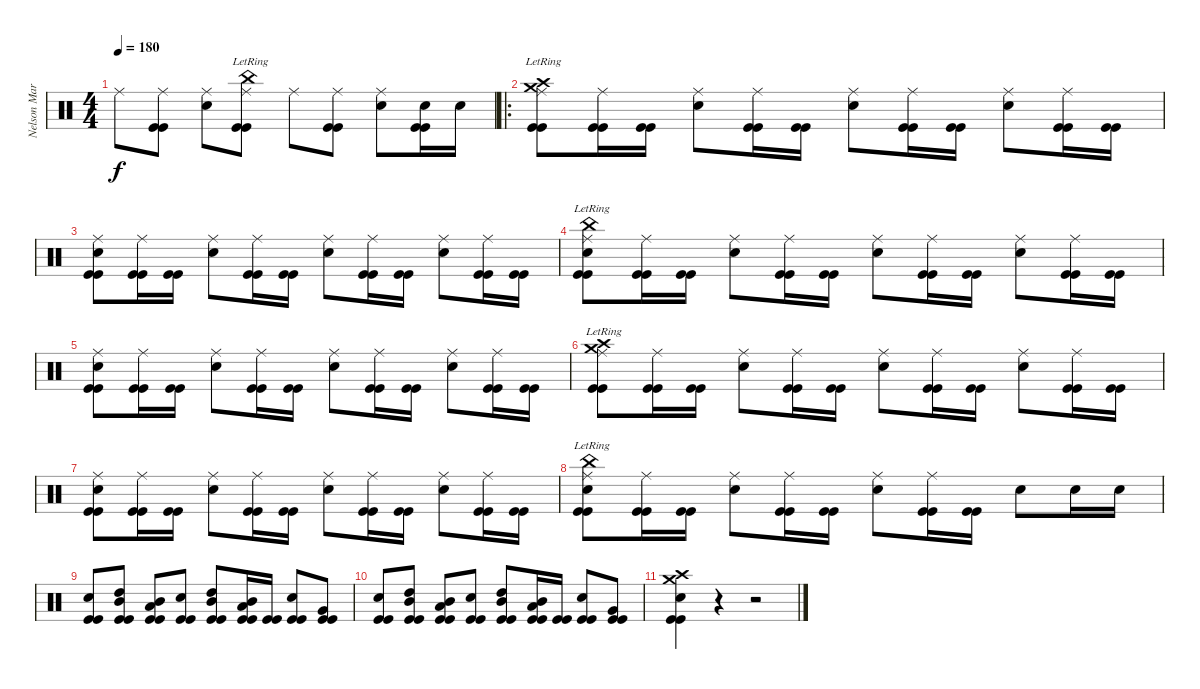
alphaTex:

\track ("Nelson Maria" "Nelson Mar") {instrument percussion}
\staff {score}
\articulation defaults
\ts (4 4)
\tempo 180
\clef neutral
\ks c "Ride (middle)".8{dy f}
("Ride (middle)" "Kick (hit)" "Kick (hit)").8 ("Snare (hit) 2" "Ride (middle)").8 ("China (hit)"{lr} "Ride (middle)" "Kick (hit)" "Kick (hit)").8 "Ride (middle)".8 ("Ride (middle)" "Kick (hit)" "Kick (hit)").8 ("Snare (hit) 2" "Ride (middle)").8 ("Snare (hit) 2" "Kick (hit)" "Kick (hit)").16 "Snare (hit) 2".16 |
\ro
("Crash high (hit)"{lr} "Crash medium (hit)"{lr} "Ride (middle)" "Kick (hit)" "Kick (hit)").8 ("Ride (middle)" "Kick (hit)" "Kick (hit)").16 ("Kick (hit)" "Kick (hit)").16 ("Snare (hit) 2" "Ride (middle)").8 ("Ride (middle)" "Kick (hit)" "Kick (hit)").16 ("Kick (hit)" "Kick (hit)").16 ("Snare (hit) 2" "Ride (middle)").8 ("Ride (middle)" "Kick (hit)" "Kick (hit)").16 ("Kick (hit)" "Kick (hit)").16 ("Snare (hit) 2" "Ride (middle)").8 ("Ride (middle)" "Kick (hit)" "Kick (hit)").16 ("Kick (hit)" "Kick (hit)").16 |
("Snare (hit) 2" "Ride (middle)" "Kick (hit)" "Kick (hit)").8 ("Ride (middle)" "Kick (hit)" "Kick (hit)").16 ("Kick (hit)" "Kick (hit)").16 ("Snare (hit) 2" "Ride (middle)").8 ("Ride (middle)" "Kick (hit)" "Kick (hit)").16 ("Kick (hit)" "Kick (hit)").16 ("Snare (hit) 2" "Ride (middle)").8 ("Ride (middle)" "Kick (hit)" "Kick (hit)").16 ("Kick (hit)" "Kick (hit)").16 ("Snare (hit) 2" "Ride (middle)").8 ("Ride (middle)" "Kick (hit)" "Kick (hit)").16 ("Kick (hit)" "Kick (hit)").16 |
("China (hit)"{lr} "Snare (hit) 2" "Ride (middle)" "Kick (hit)" "Kick (hit)").8 ("Ride (middle)" "Kick (hit)" "Kick (hit)").16 ("Kick (hit)" "Kick (hit)").16 ("Snare (hit) 2" "Ride (middle)").8 ("Ride (middle)" "Kick (hit)" "Kick (hit)").16 ("Kick (hit)" "Kick (hit)").16 ("Snare (hit) 2" "Ride (middle)").8 ("Ride (middle)" "Kick (hit)" "Kick (hit)").16 ("Kick (hit)" "Kick (hit)").16 ("Snare (hit) 2" "Ride (middle)").8 ("Ride (middle)" "Kick (hit)" "Kick (hit)").16 ("Kick (hit)" "Kick (hit)").16 |
("Snare (hit) 2" "Ride (middle)" "Kick (hit)" "Kick (hit)").8 ("Ride (middle)" "Kick (hit)" "Kick (hit)").16 ("Kick (hit)" "Kick (hit)").16 ("Snare (hit) 2" "Ride (middle)").8 ("Ride (middle)" "Kick (hit)" "Kick (hit)").16 ("Kick (hit)" "Kick (hit)").16 ("Snare (hit) 2" "Ride (middle)").8 ("Ride (middle)" "Kick (hit)" "Kick (hit)").16 ("Kick (hit)" "Kick (hit)").16 ("Snare (hit) 2" "Ride (middle)").8 ("Ride (middle)" "Kick (hit)" "Kick (hit)").16 ("Kick (hit)" "Kick (hit)").16 |
("Crash high (hit)"{lr} "Crash medium (hit)"{lr} "Ride (middle)" "Kick (hit)" "Kick (hit)").8 ("Ride (middle)" "Kick (hit)" "Kick (hit)").16 ("Kick (hit)" "Kick (hit)").16 ("Snare (hit) 2" "Ride (middle)").8 ("Ride (middle)" "Kick (hit)" "Kick (hit)").16 ("Kick (hit)" "Kick (hit)").16 ("Snare (hit) 2" "Ride (middle)").8 ("Ride (middle)" "Kick (hit)" "Kick (hit)").16 ("Kick (hit)" "Kick (hit)").16 ("Snare (hit) 2" "Ride (middle)").8 ("Ride (middle)" "Kick (hit)" "Kick (hit)").16 ("Kick (hit)" "Kick (hit)").16 |
("Snare (hit) 2" "Ride (middle)" "Kick (hit)" "Kick (hit)").8 ("Ride (middle)" "Kick (hit)" "Kick (hit)").16 ("Kick (hit)" "Kick (hit)").16 ("Snare (hit) 2" "Ride (middle)").8 ("Ride (middle)" "Kick (hit)" "Kick (hit)").16 ("Kick (hit)" "Kick (hit)").16 ("Snare (hit) 2" "Ride (middle)").8 ("Ride (middle)" "Kick (hit)" "Kick (hit)").16 ("Kick (hit)" "Kick (hit)").16 ("Snare (hit) 2" "Ride (middle)").8 ("Ride (middle)" "Kick (hit)" "Kick (hit)").16 ("Kick (hit)" "Kick (hit)").16 |
("China (hit)"{lr} "Snare (hit) 2" "Ride (middle)" "Kick (hit)" "Kick (hit)").8 ("Ride (middle)" "Kick (hit)" "Kick (hit)").16 ("Kick (hit)" "Kick (hit)").16 ("Snare (hit) 2" "Ride (middle)").8 ("Ride (middle)" "Kick (hit)" "Kick (hit)").16 ("Kick (hit)" "Kick (hit)").16 ("Snare (hit) 2" "Ride (middle)").8 ("Ride (middle)" "Kick (hit)" "Kick (hit)").16 ("Kick (hit)" "Kick (hit)").16 "Snare (hit) 2".8 "Snare (hit) 2".16 "Snare (hit) 2".16 |
("Snare (hit) 2" "Kick (hit)" "Kick (hit)").8 ("Mid Tom (hit)" "High Tom (hit)" "Kick (hit)" "Kick (hit)").8 ("Low Tom (hit)" "Mid Tom (hit)" "Kick (hit)" "Kick (hit)").8 ("Snare (hit) 2" "Kick (hit)" "Kick (hit)").8 ("Mid Tom (hit)" "High Tom (hit)" "Kick (hit)" "Kick (hit)").8 ("Low Tom (hit)" "Mid Tom (hit)" "Kick (hit)" "Kick (hit)").16 ("Kick (hit)" "Kick (hit)").16 ("Snare (hit) 2" "Kick (hit)" "Kick (hit)").8 ("Very Low Tom (hit)" "Kick (hit)" "Kick (hit)").8 |
("Snare (hit) 2" "Kick (hit)" "Kick (hit)").8 ("Mid Tom (hit)" "High Tom (hit)" "Kick (hit)" "Kick (hit)").8 ("Low Tom (hit)" "Mid Tom (hit)" "Kick (hit)" "Kick (hit)").8 ("Snare (hit) 2" "Kick (hit)" "Kick (hit)").8 ("Mid Tom (hit)" "High Tom (hit)" "Kick (hit)" "Kick (hit)").8 ("Low Tom (hit)" "Mid Tom (hit)" "Kick (hit)" "Kick (hit)").16 ("Kick (hit)" "Kick (hit)").16 ("Snare (hit) 2" "Kick (hit)" "Kick (hit)").8 ("Very Low Tom (hit)" "Kick (hit)" "Kick (hit)").8 |
("Crash high (hit)" "Crash medium (hit)" "Snare (hit) 2" "Kick (hit)" "Kick (hit)").4 r.4 r.2
